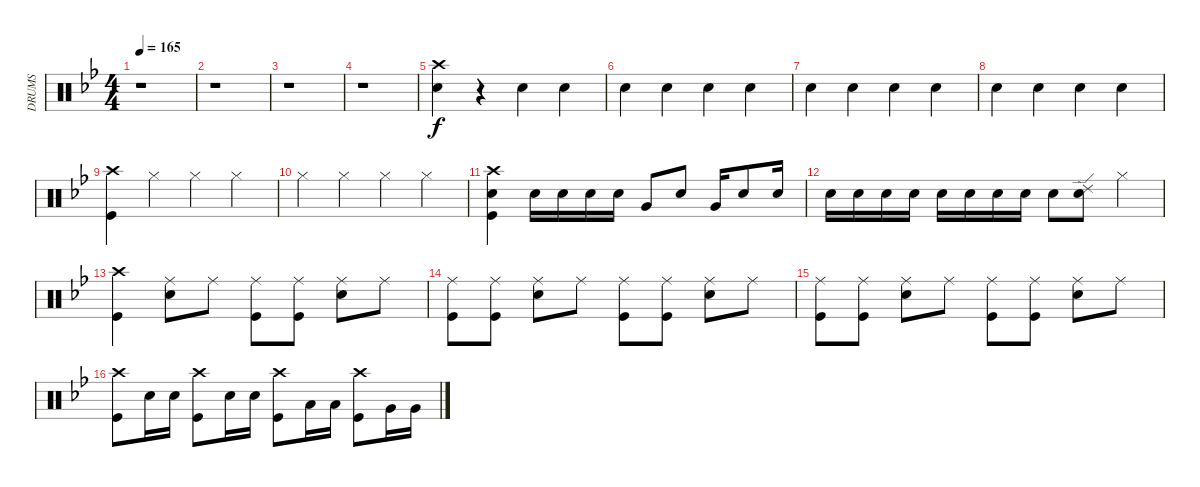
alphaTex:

\track ("DRUMS" "DRUMS") {instrument percussion}
\staff {score}
\articulation defaults
\ts (4 4)
\tempo 165
\clef neutral
\ks bb
r.1{dy f} |
r.1 |
r.1 |
r.1 |
("Crash high (hit)" "Electric Snare (hit)").4 r.4 "Electric Snare (hit)".4 "Electric Snare (hit)".4 |
"Electric Snare (hit)".4 "Electric Snare (hit)".4 "Electric Snare (hit)".4 "Electric Snare (hit)".4 |
"Electric Snare (hit)".4 "Electric Snare (hit)".4 "Electric Snare (hit)".4 "Electric Snare (hit)".4 |
"Electric Snare (hit)".4 "Electric Snare (hit)".4 "Electric Snare (hit)".4 "Electric Snare (hit)".4 |
("Crash high (hit)" "Kick (hit)").4 "Hi-Hat (closed)".4 "Hi-Hat (closed)".4 "Hi-Hat (closed)".4 |
"Hi-Hat (closed)".4 "Hi-Hat (closed)".4 "Hi-Hat (closed)".4 "Hi-Hat (closed)".4 |
("Crash high (hit)" "Electric Snare (hit)" "Kick (hit)").4 "Electric Snare (hit)".16 "Electric Snare (hit)".16 "Electric Snare (hit)".16 "Electric Snare (hit)".16 "Very Low Tom (hit)".8 "Electric Snare (hit)".8 "Very Low Tom (hit)".16 "Electric Snare (hit)".8 "Electric Snare (hit)".16 |
"Electric Snare (hit)".16 "Electric Snare (hit)".16 "Electric Snare (hit)".16 "Electric Snare (hit)".16 "Electric Snare (hit)".16 "Electric Snare (hit)".16 "Electric Snare (hit)".16 "Electric Snare (hit)".16 "Electric Snare (hit)".8 ("Ride (edge) 2" "Electric Snare (hit)").8 "Hi-Hat (closed)".4 |
("Crash high (hit)" "Kick (hit)").4 ("Ride (middle)" "Electric Snare (hit)").8 "Ride (middle)".8 ("Ride (middle)" "Kick (hit)").8 ("Ride (middle)" "Kick (hit)").8 ("Ride (middle)" "Electric Snare (hit)").8 "Ride (middle)".8 |
("Ride (middle)" "Kick (hit)").8 ("Ride (middle)" "Kick (hit)").8 ("Ride (middle)" "Electric Snare (hit)").8 "Ride (middle)".8 ("Ride (middle)" "Kick (hit)").8 ("Ride (middle)" "Kick (hit)").8 ("Ride (middle)" "Electric Snare (hit)").8 "Ride (middle)".8 |
("Ride (middle)" "Kick (hit)").8 ("Ride (middle)" "Kick (hit)").8 ("Ride (middle)" "Electric Snare (hit)").8 "Ride (middle)".8 ("Ride (middle)" "Kick (hit)").8 ("Ride (middle)" "Kick (hit)").8 ("Ride (middle)" "Electric Snare (hit)").8 "Ride (middle)".8 |
("Crash high (hit)" "Kick (hit)").8 "Electric Snare (hit)".16 "Electric Snare (hit)".16 ("Crash high (hit)" "Kick (hit)").8 "Electric Snare (hit)".16 "Electric Snare (hit)".16 ("Crash high (hit)" "Kick (hit)").8 "Low Tom (hit)".16 "Low Tom (hit)".16 ("Crash high (hit)" "Kick (hit)").8 "Very Low Tom (hit)".16 "Very Low Tom (hit)".16
